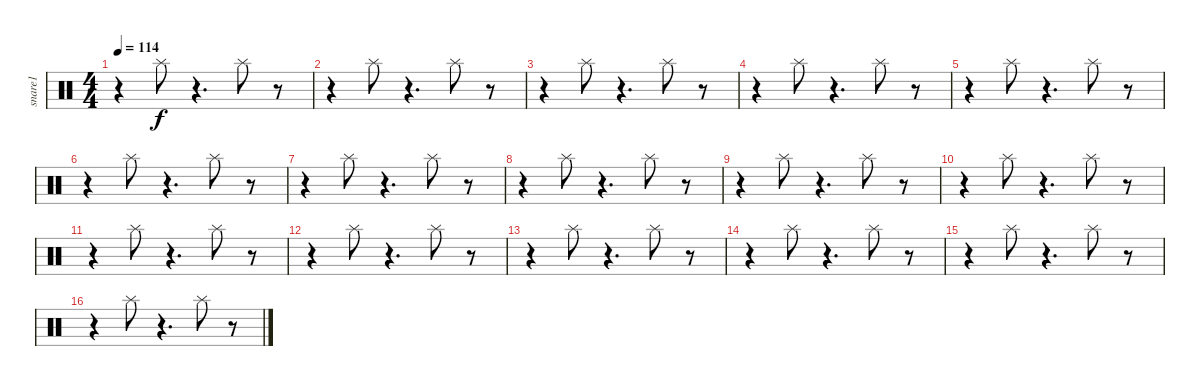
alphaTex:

\track ("snare1              " "snare1    ") {instrument percussion}
\staff {score}
\articulation defaults
\ts (4 4)
\tempo 114
\clef neutral
\ks c
r.4{dy f} "Splash (hit)".8 r.4{d} "Splash (hit)".8 r.8 |
r.4 "Splash (hit)".8 r.4{d} "Splash (hit)".8 r.8 |
r.4 "Splash (hit)".8 r.4{d} "Splash (hit)".8 r.8 |
r.4 "Splash (hit)".8 r.4{d} "Splash (hit)".8 r.8 |
r.4 "Splash (hit)".8 r.4{d} "Splash (hit)".8 r.8 |
r.4 "Splash (hit)".8 r.4{d} "Splash (hit)".8 r.8 |
r.4 "Splash (hit)".8 r.4{d} "Splash (hit)".8 r.8 |
r.4 "Splash (hit)".8 r.4{d} "Splash (hit)".8 r.8 |
r.4 "Splash (hit)".8 r.4{d} "Splash (hit)".8 r.8 |
r.4 "Splash (hit)".8 r.4{d} "Splash (hit)".8 r.8 |
r.4 "Splash (hit)".8 r.4{d} "Splash (hit)".8 r.8 |
r.4 "Splash (hit)".8 r.4{d} "Splash (hit)".8 r.8 |
r.4 "Splash (hit)".8 r.4{d} "Splash (hit)".8 r.8 |
r.4 "Splash (hit)".8 r.4{d} "Splash (hit)".8 r.8 |
r.4 "Splash (hit)".8 r.4{d} "Splash (hit)".8 r.8 |
r.4 "Splash (hit)".8 r.4{d} "Splash (hit)".8 r.8
